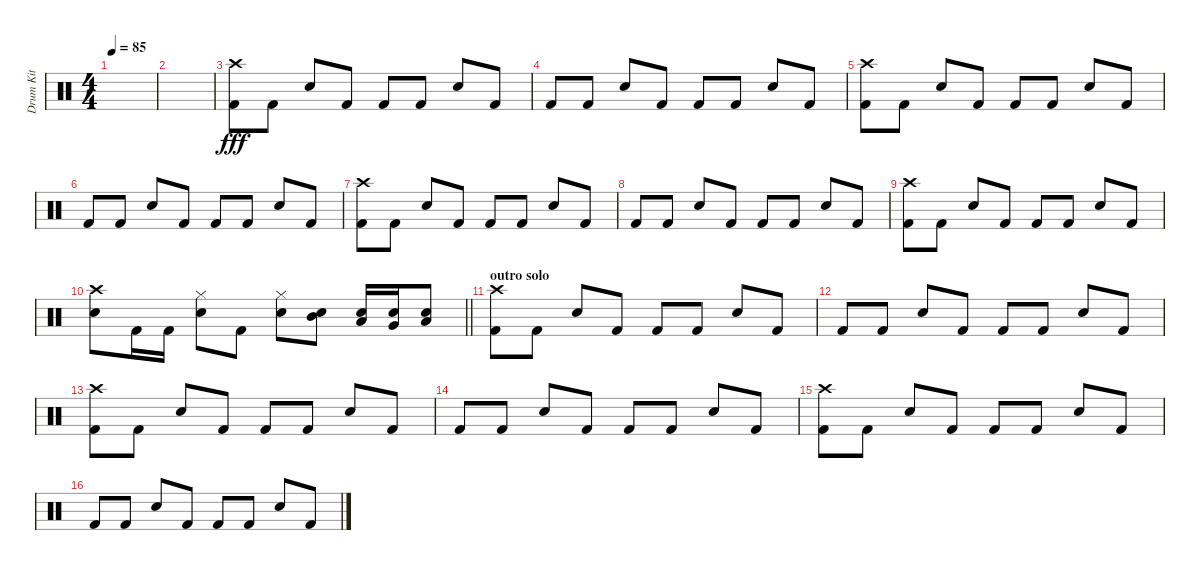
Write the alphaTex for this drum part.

\track ("Drum Kit" "Drum Kit") {instrument percussion}
\staff {score}
\articulation defaults
\ts (4 4)
\tempo 85
\clef neutral
\ks c
|
|
("Crash high (hit)" "Kick (hit) 2").8{dy fff} "Kick (hit) 2".8 "Snare (hit) 2".8 "Kick (hit) 2".8 "Kick (hit) 2".8 "Kick (hit) 2".8 "Snare (hit) 2".8 "Kick (hit) 2".8 |
"Kick (hit) 2".8 "Kick (hit) 2".8 "Snare (hit) 2".8 "Kick (hit) 2".8 "Kick (hit) 2".8 "Kick (hit) 2".8 "Snare (hit) 2".8 "Kick (hit) 2".8 |
("Crash high (hit)" "Kick (hit) 2").8 "Kick (hit) 2".8 "Snare (hit) 2".8 "Kick (hit) 2".8 "Kick (hit) 2".8 "Kick (hit) 2".8 "Snare (hit) 2".8 "Kick (hit) 2".8 |
"Kick (hit) 2".8 "Kick (hit) 2".8 "Snare (hit) 2".8 "Kick (hit) 2".8 "Kick (hit) 2".8 "Kick (hit) 2".8 "Snare (hit) 2".8 "Kick (hit) 2".8 |
("Crash high (hit)" "Kick (hit) 2").8 "Kick (hit) 2".8 "Snare (hit) 2".8 "Kick (hit) 2".8 "Kick (hit) 2".8 "Kick (hit) 2".8 "Snare (hit) 2".8 "Kick (hit) 2".8 |
"Kick (hit) 2".8 "Kick (hit) 2".8 "Snare (hit) 2".8 "Kick (hit) 2".8 "Kick (hit) 2".8 "Kick (hit) 2".8 "Snare (hit) 2".8 "Kick (hit) 2".8 |
("Crash high (hit)" "Kick (hit) 2").8 "Kick (hit) 2".8 "Snare (hit) 2".8 "Kick (hit) 2".8 "Kick (hit) 2".8 "Kick (hit) 2".8 "Snare (hit) 2".8 "Kick (hit) 2".8 |
\barLineRight lightlight
("Crash high (hit)" "Snare (hit) 2").8 "Kick (hit) 2".16 "Kick (hit) 2".16 ("Hi-Hat (closed)" "Snare (hit) 2").8 "Kick (hit) 2".8 ("Hi-Hat (closed)" "Snare (hit) 2").8 ("Mid Tom (hit)" "Snare (hit) 2").8 ("Low Tom (hit)" "Snare (hit) 2").16 ("Very Low Tom (hit)" "Snare (hit) 2").16 ("Low Floor Tom (hit)" "Snare (hit) 2").8 |
\section ("" "outro solo")
("Crash high (hit)" "Kick (hit) 2").8 "Kick (hit) 2".8 "Snare (hit) 2".8 "Kick (hit) 2".8 "Kick (hit) 2".8 "Kick (hit) 2".8 "Snare (hit) 2".8 "Kick (hit) 2".8 |
"Kick (hit) 2".8 "Kick (hit) 2".8 "Snare (hit) 2".8 "Kick (hit) 2".8 "Kick (hit) 2".8 "Kick (hit) 2".8 "Snare (hit) 2".8 "Kick (hit) 2".8 |
("Crash high (hit)" "Kick (hit) 2").8 "Kick (hit) 2".8 "Snare (hit) 2".8 "Kick (hit) 2".8 "Kick (hit) 2".8 "Kick (hit) 2".8 "Snare (hit) 2".8 "Kick (hit) 2".8 |
"Kick (hit) 2".8 "Kick (hit) 2".8 "Snare (hit) 2".8 "Kick (hit) 2".8 "Kick (hit) 2".8 "Kick (hit) 2".8 "Snare (hit) 2".8 "Kick (hit) 2".8 |
("Crash high (hit)" "Kick (hit) 2").8 "Kick (hit) 2".8 "Snare (hit) 2".8 "Kick (hit) 2".8 "Kick (hit) 2".8 "Kick (hit) 2".8 "Snare (hit) 2".8 "Kick (hit) 2".8 |
"Kick (hit) 2".8 "Kick (hit) 2".8 "Snare (hit) 2".8 "Kick (hit) 2".8 "Kick (hit) 2".8 "Kick (hit) 2".8 "Snare (hit) 2".8 "Kick (hit) 2".8
